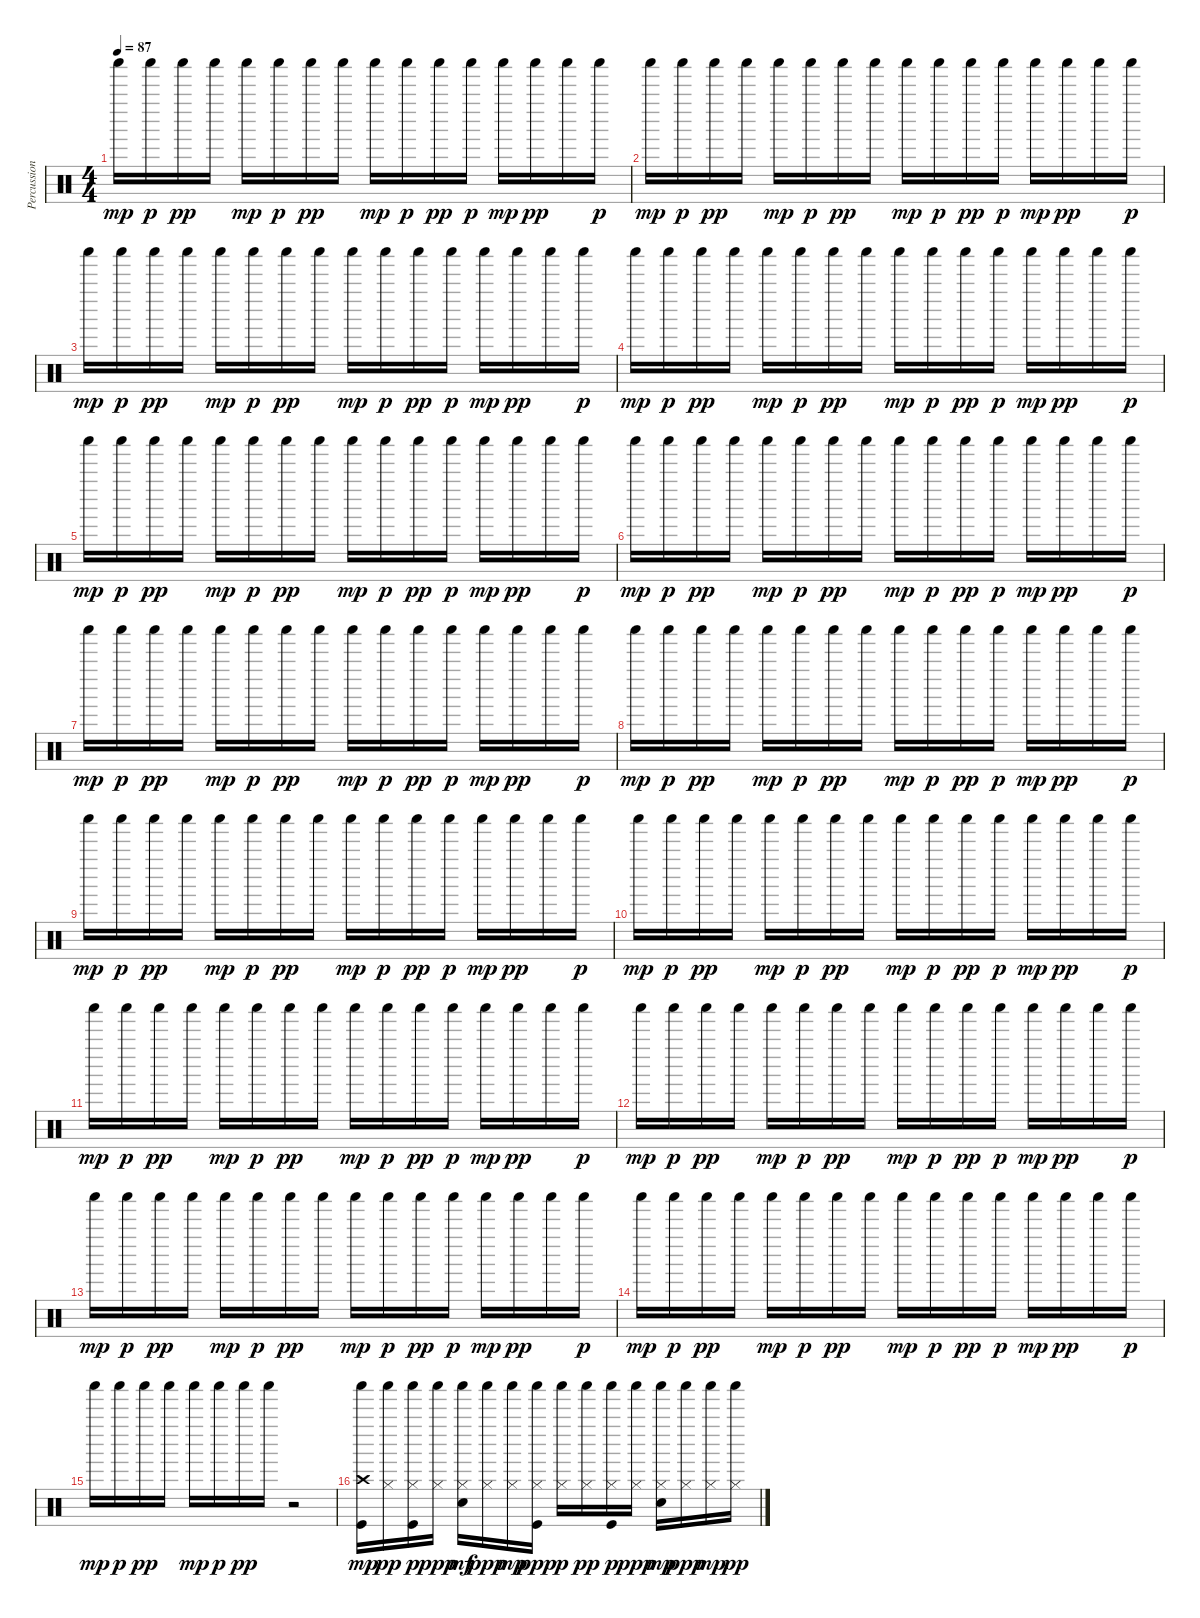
\track ("Percussioni" "Percussion") {instrument percussion}
\staff {score}
\articulation defaults
\ts (4 4)
\tempo 87
\clef neutral
\ks c "Shaker (hit)".16{dy mp} "Shaker (hit)".16{dy p} "Shaker (hit)".16{dy pp} "Shaker (hit)".16 "Shaker (hit)".16{dy mp} "Shaker (hit)".16{dy p} "Shaker (hit)".16{dy pp} "Shaker (hit)".16 "Shaker (hit)".16{dy mp} "Shaker (hit)".16{dy p} "Shaker (hit)".16{dy pp} "Shaker (hit)".16{dy p} "Shaker (hit)".16{dy mp} "Shaker (hit)".16{dy pp} "Shaker (hit)".16 "Shaker (hit)".16{dy p}
|
"Shaker (hit)".16{dy mp} "Shaker (hit)".16{dy p} "Shaker (hit)".16{dy pp} "Shaker (hit)".16 "Shaker (hit)".16{dy mp} "Shaker (hit)".16{dy p} "Shaker (hit)".16{dy pp} "Shaker (hit)".16 "Shaker (hit)".16{dy mp} "Shaker (hit)".16{dy p} "Shaker (hit)".16{dy pp} "Shaker (hit)".16{dy p} "Shaker (hit)".16{dy mp} "Shaker (hit)".16{dy pp} "Shaker (hit)".16 "Shaker (hit)".16{dy p} |
"Shaker (hit)".16{dy mp} "Shaker (hit)".16{dy p} "Shaker (hit)".16{dy pp} "Shaker (hit)".16 "Shaker (hit)".16{dy mp} "Shaker (hit)".16{dy p} "Shaker (hit)".16{dy pp} "Shaker (hit)".16 "Shaker (hit)".16{dy mp} "Shaker (hit)".16{dy p} "Shaker (hit)".16{dy pp} "Shaker (hit)".16{dy p} "Shaker (hit)".16{dy mp} "Shaker (hit)".16{dy pp} "Shaker (hit)".16 "Shaker (hit)".16{dy p} |
"Shaker (hit)".16{dy mp} "Shaker (hit)".16{dy p} "Shaker (hit)".16{dy pp} "Shaker (hit)".16 "Shaker (hit)".16{dy mp} "Shaker (hit)".16{dy p} "Shaker (hit)".16{dy pp} "Shaker (hit)".16 "Shaker (hit)".16{dy mp} "Shaker (hit)".16{dy p} "Shaker (hit)".16{dy pp} "Shaker (hit)".16{dy p} "Shaker (hit)".16{dy mp} "Shaker (hit)".16{dy pp} "Shaker (hit)".16 "Shaker (hit)".16{dy p} |
"Shaker (hit)".16{dy mp} "Shaker (hit)".16{dy p} "Shaker (hit)".16{dy pp} "Shaker (hit)".16 "Shaker (hit)".16{dy mp} "Shaker (hit)".16{dy p} "Shaker (hit)".16{dy pp} "Shaker (hit)".16 "Shaker (hit)".16{dy mp} "Shaker (hit)".16{dy p} "Shaker (hit)".16{dy pp} "Shaker (hit)".16{dy p} "Shaker (hit)".16{dy mp} "Shaker (hit)".16{dy pp} "Shaker (hit)".16 "Shaker (hit)".16{dy p} |
"Shaker (hit)".16{dy mp} "Shaker (hit)".16{dy p} "Shaker (hit)".16{dy pp} "Shaker (hit)".16 "Shaker (hit)".16{dy mp} "Shaker (hit)".16{dy p} "Shaker (hit)".16{dy pp} "Shaker (hit)".16 "Shaker (hit)".16{dy mp} "Shaker (hit)".16{dy p} "Shaker (hit)".16{dy pp} "Shaker (hit)".16{dy p} "Shaker (hit)".16{dy mp} "Shaker (hit)".16{dy pp} "Shaker (hit)".16 "Shaker (hit)".16{dy p} |
"Shaker (hit)".16{dy mp} "Shaker (hit)".16{dy p} "Shaker (hit)".16{dy pp} "Shaker (hit)".16 "Shaker (hit)".16{dy mp} "Shaker (hit)".16{dy p} "Shaker (hit)".16{dy pp} "Shaker (hit)".16 "Shaker (hit)".16{dy mp} "Shaker (hit)".16{dy p} "Shaker (hit)".16{dy pp} "Shaker (hit)".16{dy p} "Shaker (hit)".16{dy mp} "Shaker (hit)".16{dy pp} "Shaker (hit)".16 "Shaker (hit)".16{dy p} |
"Shaker (hit)".16{dy mp} "Shaker (hit)".16{dy p} "Shaker (hit)".16{dy pp} "Shaker (hit)".16 "Shaker (hit)".16{dy mp} "Shaker (hit)".16{dy p} "Shaker (hit)".16{dy pp} "Shaker (hit)".16 "Shaker (hit)".16{dy mp} "Shaker (hit)".16{dy p} "Shaker (hit)".16{dy pp} "Shaker (hit)".16{dy p} "Shaker (hit)".16{dy mp} "Shaker (hit)".16{dy pp} "Shaker (hit)".16 "Shaker (hit)".16{dy p} |
"Shaker (hit)".16{dy mp} "Shaker (hit)".16{dy p} "Shaker (hit)".16{dy pp} "Shaker (hit)".16 "Shaker (hit)".16{dy mp} "Shaker (hit)".16{dy p} "Shaker (hit)".16{dy pp} "Shaker (hit)".16 "Shaker (hit)".16{dy mp} "Shaker (hit)".16{dy p} "Shaker (hit)".16{dy pp} "Shaker (hit)".16{dy p} "Shaker (hit)".16{dy mp} "Shaker (hit)".16{dy pp} "Shaker (hit)".16 "Shaker (hit)".16{dy p} |
"Shaker (hit)".16{dy mp} "Shaker (hit)".16{dy p} "Shaker (hit)".16{dy pp} "Shaker (hit)".16 "Shaker (hit)".16{dy mp} "Shaker (hit)".16{dy p} "Shaker (hit)".16{dy pp} "Shaker (hit)".16 "Shaker (hit)".16{dy mp} "Shaker (hit)".16{dy p} "Shaker (hit)".16{dy pp} "Shaker (hit)".16{dy p} "Shaker (hit)".16{dy mp} "Shaker (hit)".16{dy pp} "Shaker (hit)".16 "Shaker (hit)".16{dy p} |
"Shaker (hit)".16{dy mp} "Shaker (hit)".16{dy p} "Shaker (hit)".16{dy pp} "Shaker (hit)".16 "Shaker (hit)".16{dy mp} "Shaker (hit)".16{dy p} "Shaker (hit)".16{dy pp} "Shaker (hit)".16 "Shaker (hit)".16{dy mp} "Shaker (hit)".16{dy p} "Shaker (hit)".16{dy pp} "Shaker (hit)".16{dy p} "Shaker (hit)".16{dy mp} "Shaker (hit)".16{dy pp} "Shaker (hit)".16 "Shaker (hit)".16{dy p} |
"Shaker (hit)".16{dy mp} "Shaker (hit)".16{dy p} "Shaker (hit)".16{dy pp} "Shaker (hit)".16 "Shaker (hit)".16{dy mp} "Shaker (hit)".16{dy p} "Shaker (hit)".16{dy pp} "Shaker (hit)".16 "Shaker (hit)".16{dy mp} "Shaker (hit)".16{dy p} "Shaker (hit)".16{dy pp} "Shaker (hit)".16{dy p} "Shaker (hit)".16{dy mp} "Shaker (hit)".16{dy pp} "Shaker (hit)".16 "Shaker (hit)".16{dy p} |
"Shaker (hit)".16{dy mp} "Shaker (hit)".16{dy p} "Shaker (hit)".16{dy pp} "Shaker (hit)".16 "Shaker (hit)".16{dy mp} "Shaker (hit)".16{dy p} "Shaker (hit)".16{dy pp} "Shaker (hit)".16 "Shaker (hit)".16{dy mp} "Shaker (hit)".16{dy p} "Shaker (hit)".16{dy pp} "Shaker (hit)".16{dy p} "Shaker (hit)".16{dy mp} "Shaker (hit)".16{dy pp} "Shaker (hit)".16 "Shaker (hit)".16{dy p} |
"Shaker (hit)".16{dy mp} "Shaker (hit)".16{dy p} "Shaker (hit)".16{dy pp} "Shaker (hit)".16 "Shaker (hit)".16{dy mp} "Shaker (hit)".16{dy p} "Shaker (hit)".16{dy pp} "Shaker (hit)".16 "Shaker (hit)".16{dy mp} "Shaker (hit)".16{dy p} "Shaker (hit)".16{dy pp} "Shaker (hit)".16{dy p} "Shaker (hit)".16{dy mp} "Shaker (hit)".16{dy pp} "Shaker (hit)".16 "Shaker (hit)".16{dy p} |
"Shaker (hit)".16{dy mp} "Shaker (hit)".16{dy p} "Shaker (hit)".16{dy pp} "Shaker (hit)".16 "Shaker (hit)".16{dy mp} "Shaker (hit)".16{dy p} "Shaker (hit)".16{dy pp} "Shaker (hit)".16 r.2 |
("Kick (hit)" "Crash high (hit)" "Shaker (hit)").16{dy mp} ("Hi-Hat (closed)" "Shaker (hit)").16{dy pp} ("Kick (hit)" "Hi-Hat (closed)" "Shaker (hit)").16{dy p} ("Hi-Hat (closed)" "Shaker (hit)").16{dy ppp} ("Electric Snare (hit)" "Hi-Hat (closed)" "Shaker (hit)").16{dy mf} ("Hi-Hat (closed)" "Shaker (hit)").16{dy ppp} ("Hi-Hat (closed)" "Shaker (hit)").16{dy mp} ("Kick (hit)" "Hi-Hat (closed)" "Shaker (hit)").16{dy ppp} ("Hi-Hat (closed)" "Shaker (hit)").16{dy p} ("Hi-Hat (closed)" "Shaker (hit)").16{dy pp} ("Kick (hit)" "Hi-Hat (closed)" "Shaker (hit)").16{dy p} ("Hi-Hat (closed)" "Shaker (hit)").16{dy ppp} ("Electric Snare (hit)" "Hi-Hat (closed)" "Shaker (hit)").16{dy mp} ("Hi-Hat (closed)" "Shaker (hit)").16{dy ppp} ("Hi-Hat (closed)" "Shaker (hit)").16{dy mp} ("Hi-Hat (closed)" "Shaker (hit)").16{dy pp}
